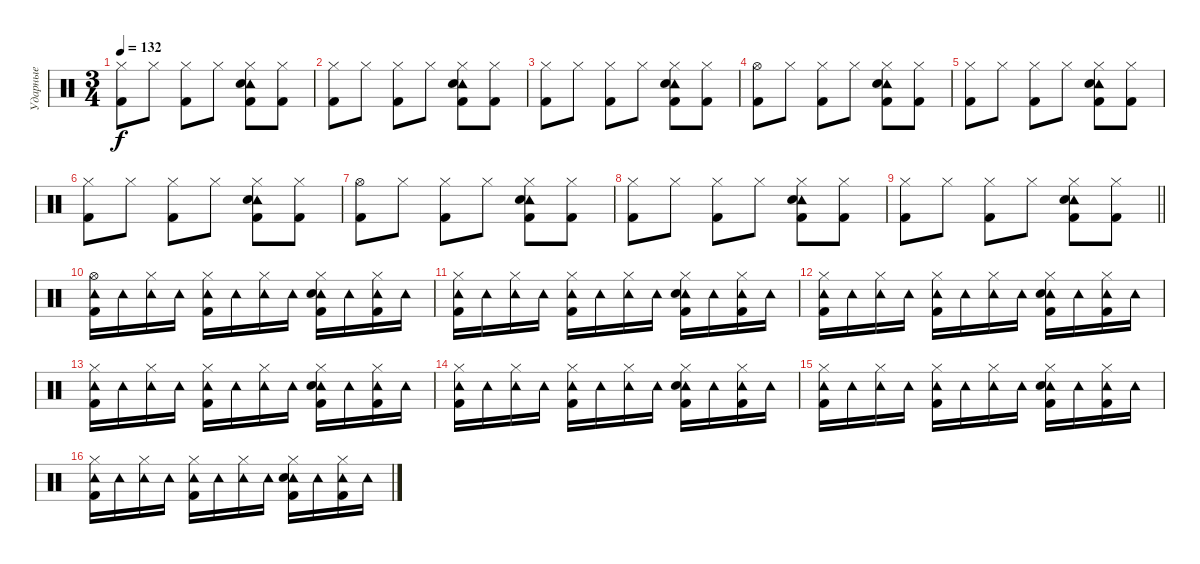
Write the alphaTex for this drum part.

\track ("Ударные" "Ударные") {instrument percussion}
\staff {score}
\articulation defaults
\ts (3 4)
\tempo 132
\clef neutral
\ks c
("Hi-Hat (closed)" "Kick (hit) 2").8{dy f} "Hi-Hat (closed)".8 ("Hi-Hat (closed)" "Kick (hit) 2").8 "Hi-Hat (closed)".8 ("Hi-Hat (closed)" "Tambourine (hit)" "Kick (hit) 2" "Electric Snare (hit)").8 ("Hi-Hat (closed)" "Kick (hit) 2").8 |
("Hi-Hat (closed)" "Kick (hit) 2").8 "Hi-Hat (closed)".8 ("Hi-Hat (closed)" "Kick (hit) 2").8 "Hi-Hat (closed)".8 ("Hi-Hat (closed)" "Tambourine (hit)" "Kick (hit) 2" "Electric Snare (hit)").8 ("Hi-Hat (closed)" "Kick (hit) 2").8 |
("Hi-Hat (closed)" "Kick (hit) 2").8 "Hi-Hat (closed)".8 ("Hi-Hat (closed)" "Kick (hit) 2").8 "Hi-Hat (closed)".8 ("Hi-Hat (closed)" "Tambourine (hit)" "Kick (hit) 2" "Electric Snare (hit)").8 ("Hi-Hat (closed)" "Kick (hit) 2").8 |
("Hi-Hat (open)" "Kick (hit) 2").8 "Hi-Hat (closed)".8 ("Hi-Hat (closed)" "Kick (hit) 2").8 "Hi-Hat (closed)".8 ("Hi-Hat (closed)" "Tambourine (hit)" "Kick (hit) 2" "Electric Snare (hit)").8 ("Hi-Hat (closed)" "Kick (hit) 2").8 |
("Hi-Hat (closed)" "Kick (hit) 2").8 "Hi-Hat (closed)".8 ("Hi-Hat (closed)" "Kick (hit) 2").8 "Hi-Hat (closed)".8 ("Hi-Hat (closed)" "Tambourine (hit)" "Kick (hit) 2" "Electric Snare (hit)").8 ("Hi-Hat (closed)" "Kick (hit) 2").8 |
("Hi-Hat (closed)" "Kick (hit) 2").8 "Hi-Hat (closed)".8 ("Hi-Hat (closed)" "Kick (hit) 2").8 "Hi-Hat (closed)".8 ("Hi-Hat (closed)" "Tambourine (hit)" "Kick (hit) 2" "Electric Snare (hit)").8 ("Hi-Hat (closed)" "Kick (hit) 2").8 |
("Hi-Hat (open)" "Kick (hit) 2").8 "Hi-Hat (closed)".8 ("Hi-Hat (closed)" "Kick (hit) 2").8 "Hi-Hat (closed)".8 ("Hi-Hat (closed)" "Tambourine (hit)" "Kick (hit) 2" "Electric Snare (hit)").8 ("Hi-Hat (closed)" "Kick (hit) 2").8 |
("Hi-Hat (closed)" "Kick (hit) 2").8 "Hi-Hat (closed)".8 ("Hi-Hat (closed)" "Kick (hit) 2").8 "Hi-Hat (closed)".8 ("Hi-Hat (closed)" "Tambourine (hit)" "Kick (hit) 2" "Electric Snare (hit)").8 ("Hi-Hat (closed)" "Kick (hit) 2").8 |
\barLineRight lightlight
("Hi-Hat (closed)" "Kick (hit) 2").8 "Hi-Hat (closed)".8 ("Hi-Hat (closed)" "Kick (hit) 2").8 "Hi-Hat (closed)".8 ("Hi-Hat (closed)" "Tambourine (hit)" "Kick (hit) 2" "Electric Snare (hit)").8 ("Hi-Hat (closed)" "Kick (hit) 2").8 |
\section ("" "")
("Hi-Hat (open)" "Tambourine (hit)" "Kick (hit) 2").16 "Tambourine (hit)".16 ("Hi-Hat (closed)" "Tambourine (hit)").16 "Tambourine (hit)".16 ("Hi-Hat (closed)" "Tambourine (hit)" "Kick (hit) 2").16 "Tambourine (hit)".16 ("Hi-Hat (closed)" "Tambourine (hit)").16 "Tambourine (hit)".16 ("Hi-Hat (closed)" "Tambourine (hit)" "Kick (hit) 2" "Electric Snare (hit)").16 "Tambourine (hit)".16 ("Hi-Hat (closed)" "Tambourine (hit)" "Kick (hit) 2").16 "Tambourine (hit)".16 |
("Hi-Hat (closed)" "Tambourine (hit)" "Kick (hit) 2").16 "Tambourine (hit)".16 ("Hi-Hat (closed)" "Tambourine (hit)").16 "Tambourine (hit)".16 ("Hi-Hat (closed)" "Tambourine (hit)" "Kick (hit) 2").16 "Tambourine (hit)".16 ("Hi-Hat (closed)" "Tambourine (hit)").16 "Tambourine (hit)".16 ("Hi-Hat (closed)" "Tambourine (hit)" "Kick (hit) 2" "Electric Snare (hit)").16 "Tambourine (hit)".16 ("Hi-Hat (closed)" "Tambourine (hit)" "Kick (hit) 2").16 "Tambourine (hit)".16 |
("Hi-Hat (closed)" "Tambourine (hit)" "Kick (hit) 2").16 "Tambourine (hit)".16 ("Hi-Hat (closed)" "Tambourine (hit)").16 "Tambourine (hit)".16 ("Hi-Hat (closed)" "Tambourine (hit)" "Kick (hit) 2").16 "Tambourine (hit)".16 ("Hi-Hat (closed)" "Tambourine (hit)").16 "Tambourine (hit)".16 ("Hi-Hat (closed)" "Tambourine (hit)" "Kick (hit) 2" "Electric Snare (hit)").16 "Tambourine (hit)".16 ("Hi-Hat (closed)" "Tambourine (hit)" "Kick (hit) 2").16 "Tambourine (hit)".16 |
("Hi-Hat (closed)" "Tambourine (hit)" "Kick (hit) 2").16 "Tambourine (hit)".16 ("Hi-Hat (closed)" "Tambourine (hit)").16 "Tambourine (hit)".16 ("Hi-Hat (closed)" "Tambourine (hit)" "Kick (hit) 2").16 "Tambourine (hit)".16 ("Hi-Hat (closed)" "Tambourine (hit)").16 "Tambourine (hit)".16 ("Hi-Hat (closed)" "Tambourine (hit)" "Kick (hit) 2" "Electric Snare (hit)").16 "Tambourine (hit)".16 ("Hi-Hat (closed)" "Tambourine (hit)" "Kick (hit) 2").16 "Tambourine (hit)".16 |
("Hi-Hat (closed)" "Tambourine (hit)" "Kick (hit) 2").16 "Tambourine (hit)".16 ("Hi-Hat (closed)" "Tambourine (hit)").16 "Tambourine (hit)".16 ("Hi-Hat (closed)" "Tambourine (hit)" "Kick (hit) 2").16 "Tambourine (hit)".16 ("Hi-Hat (closed)" "Tambourine (hit)").16 "Tambourine (hit)".16 ("Hi-Hat (closed)" "Tambourine (hit)" "Kick (hit) 2" "Electric Snare (hit)").16 "Tambourine (hit)".16 ("Hi-Hat (closed)" "Tambourine (hit)" "Kick (hit) 2").16 "Tambourine (hit)".16 |
("Hi-Hat (closed)" "Tambourine (hit)" "Kick (hit) 2").16 "Tambourine (hit)".16 ("Hi-Hat (closed)" "Tambourine (hit)").16 "Tambourine (hit)".16 ("Hi-Hat (closed)" "Tambourine (hit)" "Kick (hit) 2").16 "Tambourine (hit)".16 ("Hi-Hat (closed)" "Tambourine (hit)").16 "Tambourine (hit)".16 ("Hi-Hat (closed)" "Tambourine (hit)" "Kick (hit) 2" "Electric Snare (hit)").16 "Tambourine (hit)".16 ("Hi-Hat (closed)" "Tambourine (hit)" "Kick (hit) 2").16 "Tambourine (hit)".16 |
("Hi-Hat (closed)" "Tambourine (hit)" "Kick (hit) 2").16 "Tambourine (hit)".16 ("Hi-Hat (closed)" "Tambourine (hit)").16 "Tambourine (hit)".16 ("Hi-Hat (closed)" "Tambourine (hit)" "Kick (hit) 2").16 "Tambourine (hit)".16 ("Hi-Hat (closed)" "Tambourine (hit)").16 "Tambourine (hit)".16 ("Hi-Hat (closed)" "Tambourine (hit)" "Kick (hit) 2" "Electric Snare (hit)").16 "Tambourine (hit)".16 ("Hi-Hat (closed)" "Tambourine (hit)" "Kick (hit) 2").16 "Tambourine (hit)".16
